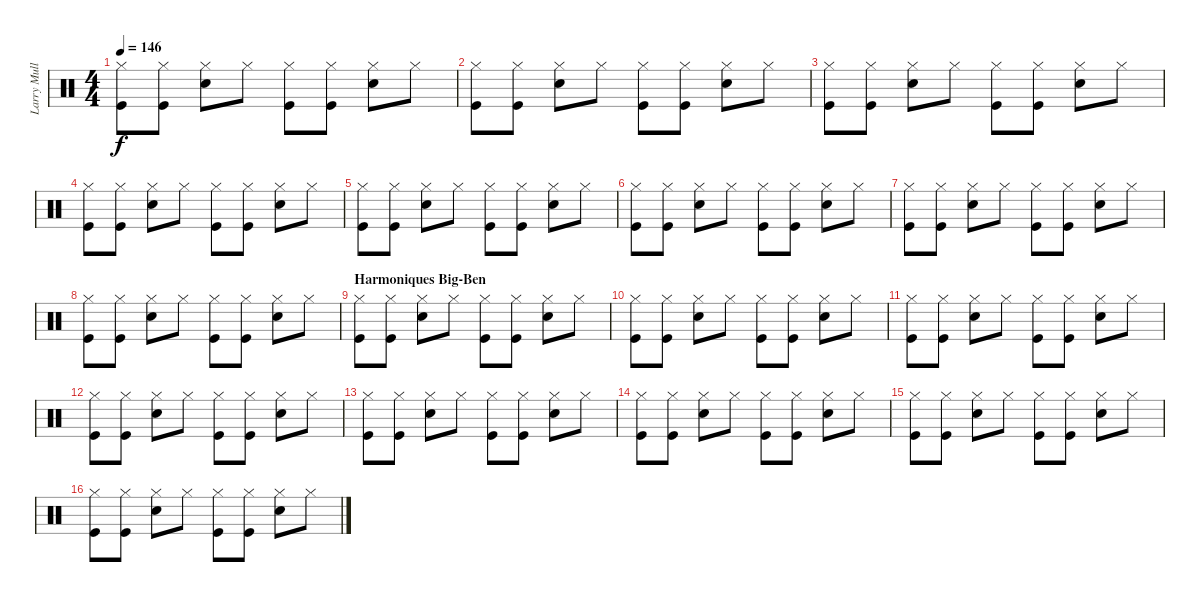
\track ("Larry Mullen" "Larry Mull") {instrument percussion}
\staff {score}
\articulation defaults
\ts (4 4)
\tempo 146
\clef neutral
\ks c
("Hi-Hat (closed)" "Kick (hit)").8{dy f} ("Hi-Hat (closed)" "Kick (hit)").8 ("Hi-Hat (closed)" "Snare (hit) 2").8 "Hi-Hat (closed)".8 ("Hi-Hat (closed)" "Kick (hit)").8 ("Hi-Hat (closed)" "Kick (hit)").8 ("Hi-Hat (closed)" "Snare (hit) 2").8 "Hi-Hat (closed)".8 |
("Hi-Hat (closed)" "Kick (hit)").8 ("Hi-Hat (closed)" "Kick (hit)").8 ("Hi-Hat (closed)" "Snare (hit) 2").8 "Hi-Hat (closed)".8 ("Hi-Hat (closed)" "Kick (hit)").8 ("Hi-Hat (closed)" "Kick (hit)").8 ("Hi-Hat (closed)" "Snare (hit) 2").8 "Hi-Hat (closed)".8 |
("Hi-Hat (closed)" "Kick (hit)").8 ("Hi-Hat (closed)" "Kick (hit)").8 ("Hi-Hat (closed)" "Snare (hit) 2").8 "Hi-Hat (closed)".8 ("Hi-Hat (closed)" "Kick (hit)").8 ("Hi-Hat (closed)" "Kick (hit)").8 ("Hi-Hat (closed)" "Snare (hit) 2").8 "Hi-Hat (closed)".8 |
("Hi-Hat (closed)" "Kick (hit)").8 ("Hi-Hat (closed)" "Kick (hit)").8 ("Hi-Hat (closed)" "Snare (hit) 2").8 "Hi-Hat (closed)".8 ("Hi-Hat (closed)" "Kick (hit)").8 ("Hi-Hat (closed)" "Kick (hit)").8 ("Hi-Hat (closed)" "Snare (hit) 2").8 "Hi-Hat (closed)".8 |
("Hi-Hat (closed)" "Kick (hit)").8 ("Hi-Hat (closed)" "Kick (hit)").8 ("Hi-Hat (closed)" "Snare (hit) 2").8 "Hi-Hat (closed)".8 ("Hi-Hat (closed)" "Kick (hit)").8 ("Hi-Hat (closed)" "Kick (hit)").8 ("Hi-Hat (closed)" "Snare (hit) 2").8 "Hi-Hat (closed)".8 |
("Hi-Hat (closed)" "Kick (hit)").8 ("Hi-Hat (closed)" "Kick (hit)").8 ("Hi-Hat (closed)" "Snare (hit) 2").8 "Hi-Hat (closed)".8 ("Hi-Hat (closed)" "Kick (hit)").8 ("Hi-Hat (closed)" "Kick (hit)").8 ("Hi-Hat (closed)" "Snare (hit) 2").8 "Hi-Hat (closed)".8 |
("Hi-Hat (closed)" "Kick (hit)").8 ("Hi-Hat (closed)" "Kick (hit)").8 ("Hi-Hat (closed)" "Snare (hit) 2").8 "Hi-Hat (closed)".8 ("Hi-Hat (closed)" "Kick (hit)").8 ("Hi-Hat (closed)" "Kick (hit)").8 ("Hi-Hat (closed)" "Snare (hit) 2").8 "Hi-Hat (closed)".8 |
("Hi-Hat (closed)" "Kick (hit)").8 ("Hi-Hat (closed)" "Kick (hit)").8 ("Hi-Hat (closed)" "Snare (hit) 2").8 "Hi-Hat (closed)".8 ("Hi-Hat (closed)" "Kick (hit)").8 ("Hi-Hat (closed)" "Kick (hit)").8 ("Hi-Hat (closed)" "Snare (hit) 2").8 "Hi-Hat (closed)".8 |
\section ("" "Harmoniques Big-Ben")
("Hi-Hat (closed)" "Kick (hit)").8 ("Hi-Hat (closed)" "Kick (hit)").8 ("Hi-Hat (closed)" "Snare (hit) 2").8 "Hi-Hat (closed)".8 ("Hi-Hat (closed)" "Kick (hit)").8 ("Hi-Hat (closed)" "Kick (hit)").8 ("Hi-Hat (closed)" "Snare (hit) 2").8 "Hi-Hat (closed)".8 |
("Hi-Hat (closed)" "Kick (hit)").8 ("Hi-Hat (closed)" "Kick (hit)").8 ("Hi-Hat (closed)" "Snare (hit) 2").8 "Hi-Hat (closed)".8 ("Hi-Hat (closed)" "Kick (hit)").8 ("Hi-Hat (closed)" "Kick (hit)").8 ("Hi-Hat (closed)" "Snare (hit) 2").8 "Hi-Hat (closed)".8 |
("Hi-Hat (closed)" "Kick (hit)").8 ("Hi-Hat (closed)" "Kick (hit)").8 ("Hi-Hat (closed)" "Snare (hit) 2").8 "Hi-Hat (closed)".8 ("Hi-Hat (closed)" "Kick (hit)").8 ("Hi-Hat (closed)" "Kick (hit)").8 ("Hi-Hat (closed)" "Snare (hit) 2").8 "Hi-Hat (closed)".8 |
("Hi-Hat (closed)" "Kick (hit)").8 ("Hi-Hat (closed)" "Kick (hit)").8 ("Hi-Hat (closed)" "Snare (hit) 2").8 "Hi-Hat (closed)".8 ("Hi-Hat (closed)" "Kick (hit)").8 ("Hi-Hat (closed)" "Kick (hit)").8 ("Hi-Hat (closed)" "Snare (hit) 2").8 "Hi-Hat (closed)".8 |
("Hi-Hat (closed)" "Kick (hit)").8 ("Hi-Hat (closed)" "Kick (hit)").8 ("Hi-Hat (closed)" "Snare (hit) 2").8 "Hi-Hat (closed)".8 ("Hi-Hat (closed)" "Kick (hit)").8 ("Hi-Hat (closed)" "Kick (hit)").8 ("Hi-Hat (closed)" "Snare (hit) 2").8 "Hi-Hat (closed)".8 |
("Hi-Hat (closed)" "Kick (hit)").8 ("Hi-Hat (closed)" "Kick (hit)").8 ("Hi-Hat (closed)" "Snare (hit) 2").8 "Hi-Hat (closed)".8 ("Hi-Hat (closed)" "Kick (hit)").8 ("Hi-Hat (closed)" "Kick (hit)").8 ("Hi-Hat (closed)" "Snare (hit) 2").8 "Hi-Hat (closed)".8 |
("Hi-Hat (closed)" "Kick (hit)").8 ("Hi-Hat (closed)" "Kick (hit)").8 ("Hi-Hat (closed)" "Snare (hit) 2").8 "Hi-Hat (closed)".8 ("Hi-Hat (closed)" "Kick (hit)").8 ("Hi-Hat (closed)" "Kick (hit)").8 ("Hi-Hat (closed)" "Snare (hit) 2").8 "Hi-Hat (closed)".8 |
("Hi-Hat (closed)" "Kick (hit)").8 ("Hi-Hat (closed)" "Kick (hit)").8 ("Hi-Hat (closed)" "Snare (hit) 2").8 "Hi-Hat (closed)".8 ("Hi-Hat (closed)" "Kick (hit)").8 ("Hi-Hat (closed)" "Kick (hit)").8 ("Hi-Hat (closed)" "Snare (hit) 2").8 "Hi-Hat (closed)".8
